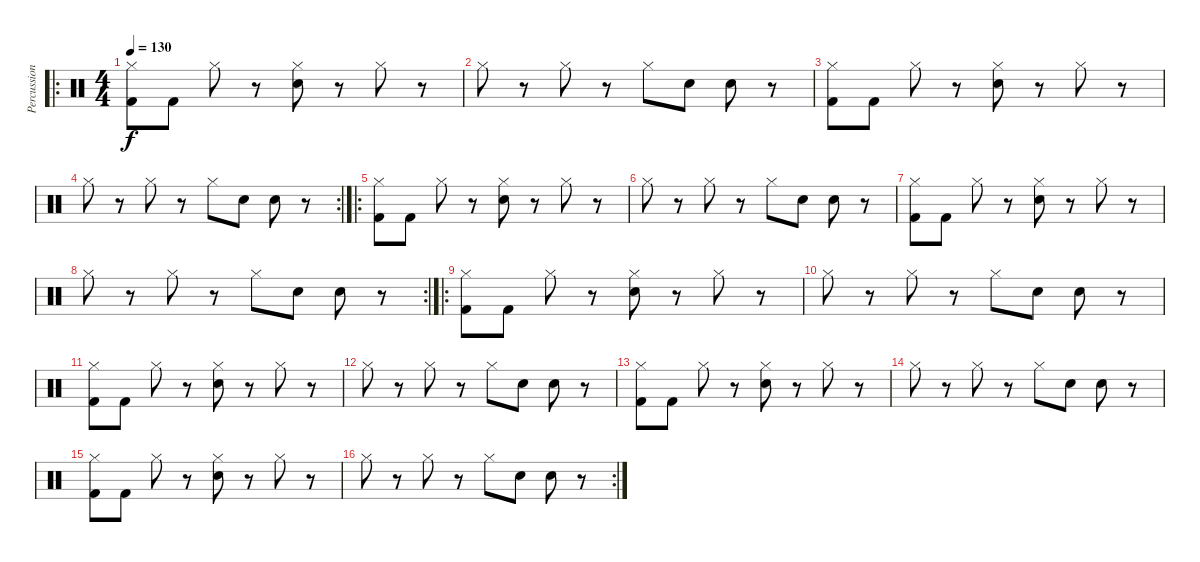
\track ("Percussion" "Percussion") {instrument percussion}
\staff {score}
\articulation defaults
\ro
\ts (4 4)
\tempo 130
\clef neutral
\ks c
("Hi-Hat (closed)" "Kick (hit) 2").8{dy f} "Kick (hit) 2".8 "Hi-Hat (closed)".8 r.8 ("Hi-Hat (closed)" "Electric Snare (hit)").8 r.8 "Hi-Hat (closed)".8 r.8 |
"Hi-Hat (closed)".8 r.8 "Hi-Hat (closed)".8 r.8 "Hi-Hat (closed)".8 "Electric Snare (hit)".8 "Electric Snare (hit)".8 r.8 |
("Hi-Hat (closed)" "Kick (hit) 2").8 "Kick (hit) 2".8 "Hi-Hat (closed)".8 r.8 ("Hi-Hat (closed)" "Electric Snare (hit)").8 r.8 "Hi-Hat (closed)".8 r.8 |
\rc 2 "Hi-Hat (closed)".8
r.8 "Hi-Hat (closed)".8 r.8 "Hi-Hat (closed)".8 "Electric Snare (hit)".8 "Electric Snare (hit)".8 r.8 |
\ro
("Hi-Hat (closed)" "Kick (hit) 2").8 "Kick (hit) 2".8 "Hi-Hat (closed)".8 r.8 ("Hi-Hat (closed)" "Electric Snare (hit)").8 r.8 "Hi-Hat (closed)".8 r.8 |
"Hi-Hat (closed)".8 r.8 "Hi-Hat (closed)".8 r.8 "Hi-Hat (closed)".8 "Electric Snare (hit)".8 "Electric Snare (hit)".8 r.8 |
("Hi-Hat (closed)" "Kick (hit) 2").8 "Kick (hit) 2".8 "Hi-Hat (closed)".8 r.8 ("Hi-Hat (closed)" "Electric Snare (hit)").8 r.8 "Hi-Hat (closed)".8 r.8 |
\rc 2 "Hi-Hat (closed)".8
r.8 "Hi-Hat (closed)".8 r.8 "Hi-Hat (closed)".8 "Electric Snare (hit)".8 "Electric Snare (hit)".8 r.8 |
\ro
("Hi-Hat (closed)" "Kick (hit) 2").8 "Kick (hit) 2".8 "Hi-Hat (closed)".8 r.8 ("Hi-Hat (closed)" "Electric Snare (hit)").8 r.8 "Hi-Hat (closed)".8 r.8 |
"Hi-Hat (closed)".8 r.8 "Hi-Hat (closed)".8 r.8 "Hi-Hat (closed)".8 "Electric Snare (hit)".8 "Electric Snare (hit)".8 r.8 |
("Hi-Hat (closed)" "Kick (hit) 2").8 "Kick (hit) 2".8 "Hi-Hat (closed)".8 r.8 ("Hi-Hat (closed)" "Electric Snare (hit)").8 r.8 "Hi-Hat (closed)".8 r.8 |
"Hi-Hat (closed)".8 r.8 "Hi-Hat (closed)".8 r.8 "Hi-Hat (closed)".8 "Electric Snare (hit)".8 "Electric Snare (hit)".8 r.8 |
("Hi-Hat (closed)" "Kick (hit) 2").8 "Kick (hit) 2".8 "Hi-Hat (closed)".8 r.8 ("Hi-Hat (closed)" "Electric Snare (hit)").8 r.8 "Hi-Hat (closed)".8 r.8 |
"Hi-Hat (closed)".8 r.8 "Hi-Hat (closed)".8 r.8 "Hi-Hat (closed)".8 "Electric Snare (hit)".8 "Electric Snare (hit)".8 r.8 |
("Hi-Hat (closed)" "Kick (hit) 2").8 "Kick (hit) 2".8 "Hi-Hat (closed)".8 r.8 ("Hi-Hat (closed)" "Electric Snare (hit)").8 r.8 "Hi-Hat (closed)".8 r.8 |
\rc 2 "Hi-Hat (closed)".8
r.8 "Hi-Hat (closed)".8 r.8 "Hi-Hat (closed)".8 "Electric Snare (hit)".8 "Electric Snare (hit)".8 r.8
